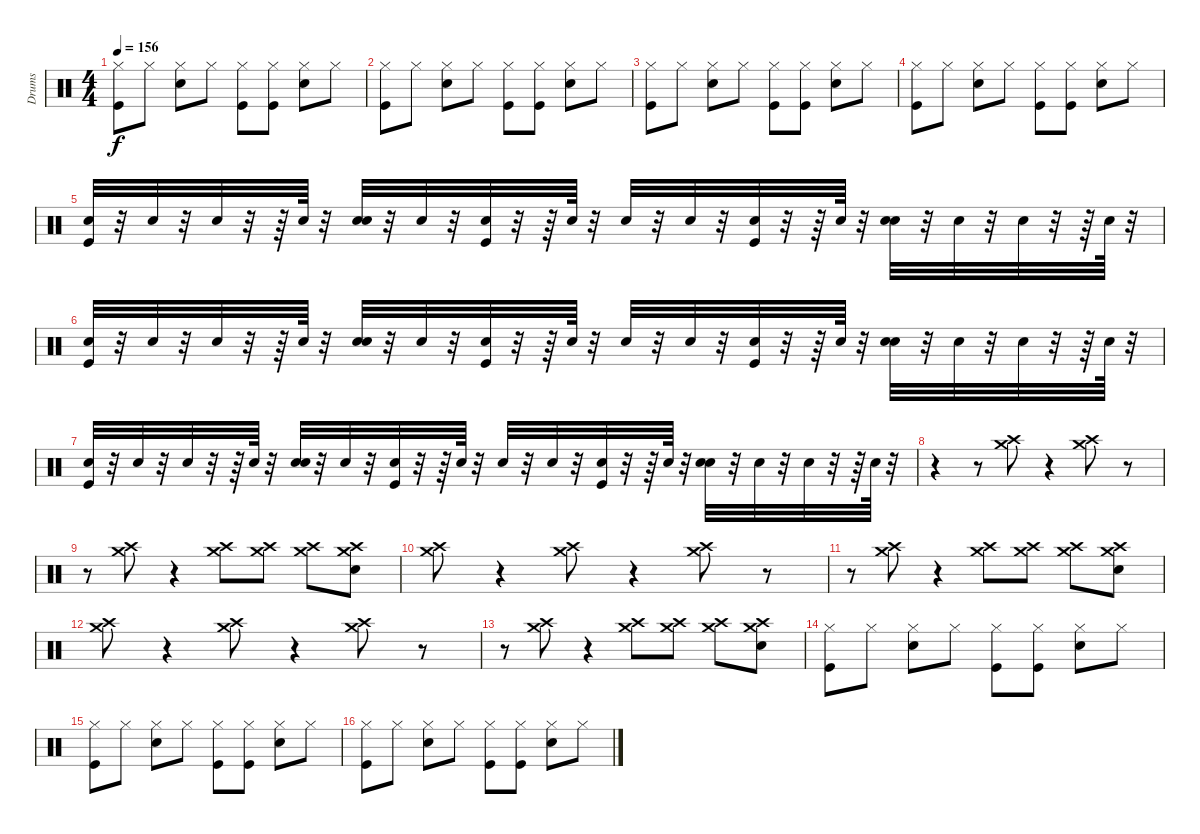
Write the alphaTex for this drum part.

\track ("Drums" "Drums") {instrument percussion}
\staff {score}
\articulation defaults
\ts (4 4)
\tempo 156
\clef neutral
\ks c
("Kick (hit)" "Hi-Hat (closed)").8{dy f} "Hi-Hat (closed)".8 ("Snare (hit) 2" "Hi-Hat (closed)").8 "Hi-Hat (closed)".8 ("Kick (hit)" "Hi-Hat (closed)").8 ("Kick (hit)" "Hi-Hat (closed)").8 ("Snare (hit) 2" "Hi-Hat (closed)").8 "Hi-Hat (closed)".8 |
("Kick (hit)" "Hi-Hat (closed)").8 "Hi-Hat (closed)".8 ("Snare (hit) 2" "Hi-Hat (closed)").8 "Hi-Hat (closed)".8 ("Kick (hit)" "Hi-Hat (closed)").8 ("Kick (hit)" "Hi-Hat (closed)").8 ("Snare (hit) 2" "Hi-Hat (closed)").8 "Hi-Hat (closed)".8 |
("Kick (hit)" "Hi-Hat (closed)").8 "Hi-Hat (closed)".8 ("Snare (hit) 2" "Hi-Hat (closed)").8 "Hi-Hat (closed)".8 ("Kick (hit)" "Hi-Hat (closed)").8 ("Kick (hit)" "Hi-Hat (closed)").8 ("Snare (hit) 2" "Hi-Hat (closed)").8 "Hi-Hat (closed)".8 |
("Kick (hit)" "Hi-Hat (closed)").8 "Hi-Hat (closed)".8 ("Snare (hit) 2" "Hi-Hat (closed)").8 "Hi-Hat (closed)".8 ("Kick (hit)" "Hi-Hat (closed)").8 ("Kick (hit)" "Hi-Hat (closed)").8 ("Snare (hit) 2" "Hi-Hat (closed)").8 "Hi-Hat (closed)".8 |
("Kick (hit)" "Electric Snare (hit)").32 r.32 "Electric Snare (hit)".32 r.32 "Electric Snare (hit)".32 r.32 r.64 "Electric Snare (hit)".64 r.32 ("Snare (hit) 2" "Electric Snare (hit)").32 r.32 "Electric Snare (hit)".32 r.32 ("Kick (hit)" "Electric Snare (hit)").32 r.32 r.64 "Electric Snare (hit)".64 r.32 "Electric Snare (hit)".32 r.32 "Electric Snare (hit)".32 r.32 ("Kick (hit)" "Electric Snare (hit)").32 r.32 r.64 "Electric Snare (hit)".64 r.32 ("Snare (hit) 2" "Electric Snare (hit)").32 r.32 "Electric Snare (hit)".32 r.32 "Electric Snare (hit)".32 r.32 r.64 "Electric Snare (hit)".64 r.32 |
("Kick (hit)" "Electric Snare (hit)").32 r.32 "Electric Snare (hit)".32 r.32 "Electric Snare (hit)".32 r.32 r.64 "Electric Snare (hit)".64 r.32 ("Snare (hit) 2" "Electric Snare (hit)").32 r.32 "Electric Snare (hit)".32 r.32 ("Kick (hit)" "Electric Snare (hit)").32 r.32 r.64 "Electric Snare (hit)".64 r.32 "Electric Snare (hit)".32 r.32 "Electric Snare (hit)".32 r.32 ("Kick (hit)" "Electric Snare (hit)").32 r.32 r.64 "Electric Snare (hit)".64 r.32 ("Snare (hit) 2" "Electric Snare (hit)").32 r.32 "Electric Snare (hit)".32 r.32 "Electric Snare (hit)".32 r.32 r.64 "Electric Snare (hit)".64 r.32 |
("Kick (hit)" "Electric Snare (hit)").32 r.32 "Electric Snare (hit)".32 r.32 "Electric Snare (hit)".32 r.32 r.64 "Electric Snare (hit)".64 r.32 ("Snare (hit) 2" "Electric Snare (hit)").32 r.32 "Electric Snare (hit)".32 r.32 ("Kick (hit)" "Electric Snare (hit)").32 r.32 r.64 "Electric Snare (hit)".64 r.32 "Electric Snare (hit)".32 r.32 "Electric Snare (hit)".32 r.32 ("Kick (hit)" "Electric Snare (hit)").32 r.32 r.64 "Electric Snare (hit)".64 r.32 ("Snare (hit) 2" "Electric Snare (hit)").32 r.32 "Electric Snare (hit)".32 r.32 "Electric Snare (hit)".32 r.32 r.64 "Electric Snare (hit)".64 r.32 |
r.4 r.8 ("Crash high (hit)" "Crash medium (hit)").8 r.4 ("Crash high (hit)" "Crash medium (hit)").8 r.8 |
r.8 ("Crash high (hit)" "Crash medium (hit)").8 r.4 ("Crash high (hit)" "Crash medium (hit)").8 ("Crash high (hit)" "Crash medium (hit)").8 ("Crash high (hit)" "Crash medium (hit)").8 ("Crash high (hit)" "Crash medium (hit)" "Snare (hit) 2").8 |
("Crash high (hit)" "Crash medium (hit)").8 r.4 ("Crash high (hit)" "Crash medium (hit)").8 r.4 ("Crash high (hit)" "Crash medium (hit)").8 r.8 |
r.8 ("Crash high (hit)" "Crash medium (hit)").8 r.4 ("Crash high (hit)" "Crash medium (hit)").8 ("Crash high (hit)" "Crash medium (hit)").8 ("Crash high (hit)" "Crash medium (hit)").8 ("Crash high (hit)" "Crash medium (hit)" "Snare (hit) 2").8 |
("Crash high (hit)" "Crash medium (hit)").8 r.4 ("Crash high (hit)" "Crash medium (hit)").8 r.4 ("Crash high (hit)" "Crash medium (hit)").8 r.8 |
r.8 ("Crash high (hit)" "Crash medium (hit)").8 r.4 ("Crash high (hit)" "Crash medium (hit)").8 ("Crash high (hit)" "Crash medium (hit)").8 ("Crash high (hit)" "Crash medium (hit)").8 ("Crash high (hit)" "Crash medium (hit)" "Snare (hit) 2").8 |
("Kick (hit)" "Hi-Hat (closed)").8 "Hi-Hat (closed)".8 ("Snare (hit) 2" "Hi-Hat (closed)").8 "Hi-Hat (closed)".8 ("Kick (hit)" "Hi-Hat (closed)").8 ("Kick (hit)" "Hi-Hat (closed)").8 ("Snare (hit) 2" "Hi-Hat (closed)").8 "Hi-Hat (closed)".8 |
("Kick (hit)" "Hi-Hat (closed)").8 "Hi-Hat (closed)".8 ("Snare (hit) 2" "Hi-Hat (closed)").8 "Hi-Hat (closed)".8 ("Kick (hit)" "Hi-Hat (closed)").8 ("Kick (hit)" "Hi-Hat (closed)").8 ("Snare (hit) 2" "Hi-Hat (closed)").8 "Hi-Hat (closed)".8 |
("Kick (hit)" "Hi-Hat (closed)").8 "Hi-Hat (closed)".8 ("Snare (hit) 2" "Hi-Hat (closed)").8 "Hi-Hat (closed)".8 ("Kick (hit)" "Hi-Hat (closed)").8 ("Kick (hit)" "Hi-Hat (closed)").8 ("Snare (hit) 2" "Hi-Hat (closed)").8 "Hi-Hat (closed)".8
